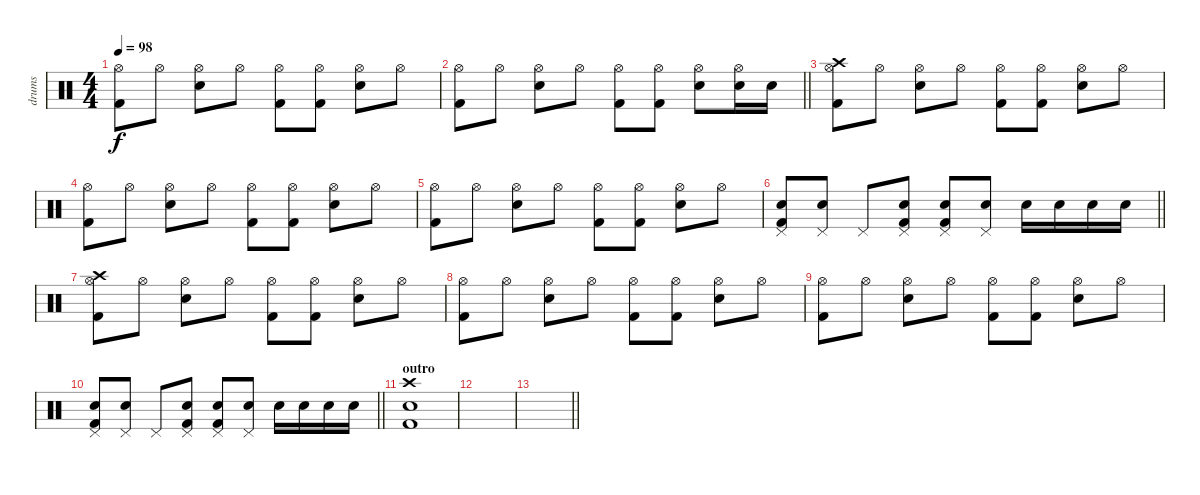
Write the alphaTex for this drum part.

\track ("drums" "drums") {instrument percussion}
\staff {score}
\articulation defaults
\ts (4 4)
\tempo 98
\clef neutral
\ks c
("Kick (hit) 2" "Hi-Hat (open)").8{dy f} "Hi-Hat (open)".8 ("Electric Snare (hit)" "Hi-Hat (open)").8 "Hi-Hat (open)".8 ("Kick (hit) 2" "Hi-Hat (open)").8 ("Kick (hit) 2" "Hi-Hat (open)").8 ("Electric Snare (hit)" "Hi-Hat (open)").8 "Hi-Hat (open)".8 |
\barLineRight lightlight
("Kick (hit) 2" "Hi-Hat (open)").8 "Hi-Hat (open)".8 ("Electric Snare (hit)" "Hi-Hat (open)").8 "Hi-Hat (open)".8 ("Kick (hit) 2" "Hi-Hat (open)").8 ("Kick (hit) 2" "Hi-Hat (open)").8 ("Electric Snare (hit)" "Hi-Hat (open)").8 ("Electric Snare (hit)" "Hi-Hat (open)").16 "Electric Snare (hit)".16 |
("Kick (hit) 2" "Hi-Hat (open)" "Crash high (hit)").8 "Hi-Hat (open)".8 ("Electric Snare (hit)" "Hi-Hat (open)").8 "Hi-Hat (open)".8 ("Kick (hit) 2" "Hi-Hat (open)").8 ("Kick (hit) 2" "Hi-Hat (open)").8 ("Electric Snare (hit)" "Hi-Hat (open)").8 "Hi-Hat (open)".8 |
("Kick (hit) 2" "Hi-Hat (open)").8 "Hi-Hat (open)".8 ("Electric Snare (hit)" "Hi-Hat (open)").8 "Hi-Hat (open)".8 ("Kick (hit) 2" "Hi-Hat (open)").8 ("Kick (hit) 2" "Hi-Hat (open)").8 ("Electric Snare (hit)" "Hi-Hat (open)").8 "Hi-Hat (open)".8 |
("Kick (hit) 2" "Hi-Hat (open)").8 "Hi-Hat (open)".8 ("Electric Snare (hit)" "Hi-Hat (open)").8 "Hi-Hat (open)".8 ("Kick (hit) 2" "Hi-Hat (open)").8 ("Kick (hit) 2" "Hi-Hat (open)").8 ("Electric Snare (hit)" "Hi-Hat (open)").8 "Hi-Hat (open)".8 |
\barLineRight lightlight
("Kick (hit) 2" "Electric Snare (hit)" "Pedal Hi-Hat (hit)").8 ("Electric Snare (hit)" "Pedal Hi-Hat (hit)").8 "Pedal Hi-Hat (hit)".8 ("Kick (hit) 2" "Electric Snare (hit)" "Pedal Hi-Hat (hit)").8 ("Kick (hit) 2" "Electric Snare (hit)" "Pedal Hi-Hat (hit)").8 ("Electric Snare (hit)" "Pedal Hi-Hat (hit)").8 "Electric Snare (hit)".16 "Electric Snare (hit)".16 "Electric Snare (hit)".16 "Electric Snare (hit)".16 |
("Kick (hit) 2" "Hi-Hat (open)" "Crash high (hit)").8 "Hi-Hat (open)".8 ("Electric Snare (hit)" "Hi-Hat (open)").8 "Hi-Hat (open)".8 ("Kick (hit) 2" "Hi-Hat (open)").8 ("Kick (hit) 2" "Hi-Hat (open)").8 ("Electric Snare (hit)" "Hi-Hat (open)").8 "Hi-Hat (open)".8 |
("Kick (hit) 2" "Hi-Hat (open)").8 "Hi-Hat (open)".8 ("Electric Snare (hit)" "Hi-Hat (open)").8 "Hi-Hat (open)".8 ("Kick (hit) 2" "Hi-Hat (open)").8 ("Kick (hit) 2" "Hi-Hat (open)").8 ("Electric Snare (hit)" "Hi-Hat (open)").8 "Hi-Hat (open)".8 |
("Kick (hit) 2" "Hi-Hat (open)").8 "Hi-Hat (open)".8 ("Electric Snare (hit)" "Hi-Hat (open)").8 "Hi-Hat (open)".8 ("Kick (hit) 2" "Hi-Hat (open)").8 ("Kick (hit) 2" "Hi-Hat (open)").8 ("Electric Snare (hit)" "Hi-Hat (open)").8 "Hi-Hat (open)".8 |
\barLineRight lightlight
("Kick (hit) 2" "Electric Snare (hit)" "Pedal Hi-Hat (hit)").8 ("Electric Snare (hit)" "Pedal Hi-Hat (hit)").8 "Pedal Hi-Hat (hit)".8 ("Kick (hit) 2" "Electric Snare (hit)" "Pedal Hi-Hat (hit)").8 ("Kick (hit) 2" "Electric Snare (hit)" "Pedal Hi-Hat (hit)").8 ("Electric Snare (hit)" "Pedal Hi-Hat (hit)").8 "Electric Snare (hit)".16 "Electric Snare (hit)".16 "Electric Snare (hit)".16 "Electric Snare (hit)".16 |
\section ("" "outro")
("Kick (hit) 2" "Electric Snare (hit)" "Crash high (hit)").1 |
|
\barLineRight lightlight
